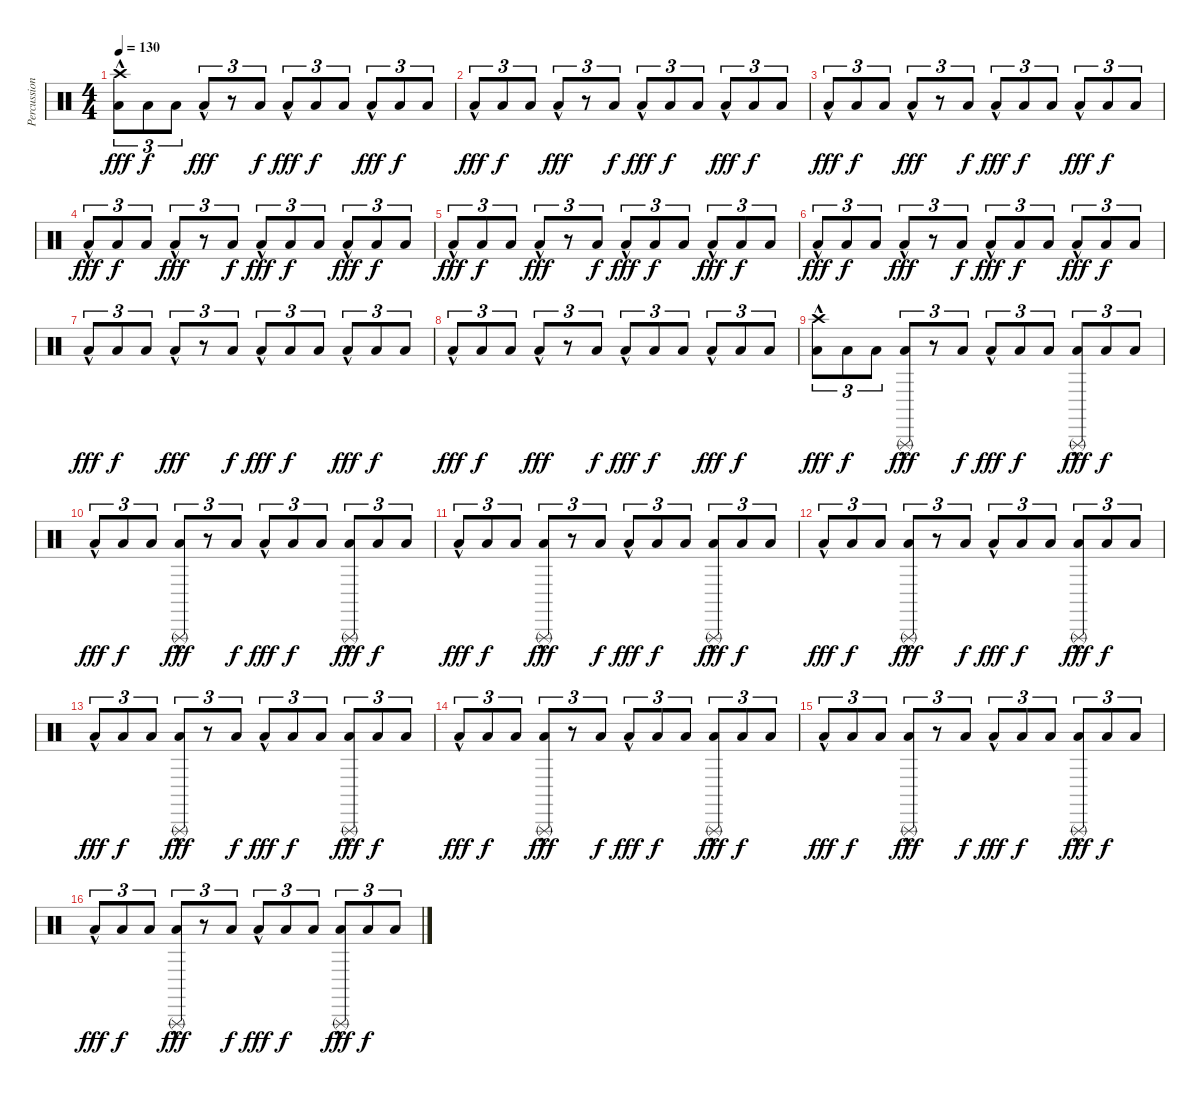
\track ("Percussion" "Percussion") {instrument percussion}
\staff {score}
\articulation defaults
\ts (4 4)
\tempo 130
\clef neutral
\ks c
("Crash high (hit)"{hac} "Low Tom (hit)"{hac}).8{tu (3 2) dy fff volume 12} "Low Tom (hit)".8{tu (3 2) dy f} "Low Tom (hit)".8{tu (3 2)} "Low Tom (hit)"{hac}.8{tu (3 2) dy fff} r.8{tu (3 2)} "Low Tom (hit)".8{tu (3 2) dy f} "Low Tom (hit)"{hac}.8{tu (3 2) dy fff} "Low Tom (hit)".8{tu (3 2) dy f} "Low Tom (hit)".8{tu (3 2)} "Low Tom (hit)"{hac}.8{tu (3 2) dy fff} "Low Tom (hit)".8{tu (3 2) dy f} "Low Tom (hit)".8{tu (3 2)} |
"Low Tom (hit)"{hac}.8{tu (3 2) dy fff} "Low Tom (hit)".8{tu (3 2) dy f} "Low Tom (hit)".8{tu (3 2)} "Low Tom (hit)"{hac}.8{tu (3 2) dy fff} r.8{tu (3 2)} "Low Tom (hit)".8{tu (3 2) dy f} "Low Tom (hit)"{hac}.8{tu (3 2) dy fff} "Low Tom (hit)".8{tu (3 2) dy f} "Low Tom (hit)".8{tu (3 2)} "Low Tom (hit)"{hac}.8{tu (3 2) dy fff} "Low Tom (hit)".8{tu (3 2) dy f} "Low Tom (hit)".8{tu (3 2)} |
"Low Tom (hit)"{hac}.8{tu (3 2) dy fff} "Low Tom (hit)".8{tu (3 2) dy f} "Low Tom (hit)".8{tu (3 2)} "Low Tom (hit)"{hac}.8{tu (3 2) dy fff} r.8{tu (3 2)} "Low Tom (hit)".8{tu (3 2) dy f} "Low Tom (hit)"{hac}.8{tu (3 2) dy fff} "Low Tom (hit)".8{tu (3 2) dy f} "Low Tom (hit)".8{tu (3 2)} "Low Tom (hit)"{hac}.8{tu (3 2) dy fff} "Low Tom (hit)".8{tu (3 2) dy f} "Low Tom (hit)".8{tu (3 2)} |
"Low Tom (hit)"{hac}.8{tu (3 2) dy fff} "Low Tom (hit)".8{tu (3 2) dy f} "Low Tom (hit)".8{tu (3 2)} "Low Tom (hit)"{hac}.8{tu (3 2) dy fff} r.8{tu (3 2)} "Low Tom (hit)".8{tu (3 2) dy f} "Low Tom (hit)"{hac}.8{tu (3 2) dy fff} "Low Tom (hit)".8{tu (3 2) dy f} "Low Tom (hit)".8{tu (3 2)} "Low Tom (hit)"{hac}.8{tu (3 2) dy fff} "Low Tom (hit)".8{tu (3 2) dy f} "Low Tom (hit)".8{tu (3 2)} |
"Low Tom (hit)"{hac}.8{tu (3 2) dy fff} "Low Tom (hit)".8{tu (3 2) dy f} "Low Tom (hit)".8{tu (3 2)} "Low Tom (hit)"{hac}.8{tu (3 2) dy fff} r.8{tu (3 2)} "Low Tom (hit)".8{tu (3 2) dy f} "Low Tom (hit)"{hac}.8{tu (3 2) dy fff} "Low Tom (hit)".8{tu (3 2) dy f} "Low Tom (hit)".8{tu (3 2)} "Low Tom (hit)"{hac}.8{tu (3 2) dy fff} "Low Tom (hit)".8{tu (3 2) dy f} "Low Tom (hit)".8{tu (3 2)} |
"Low Tom (hit)"{hac}.8{tu (3 2) dy fff} "Low Tom (hit)".8{tu (3 2) dy f} "Low Tom (hit)".8{tu (3 2)} "Low Tom (hit)"{hac}.8{tu (3 2) dy fff} r.8{tu (3 2)} "Low Tom (hit)".8{tu (3 2) dy f} "Low Tom (hit)"{hac}.8{tu (3 2) dy fff} "Low Tom (hit)".8{tu (3 2) dy f} "Low Tom (hit)".8{tu (3 2)} "Low Tom (hit)"{hac}.8{tu (3 2) dy fff} "Low Tom (hit)".8{tu (3 2) dy f} "Low Tom (hit)".8{tu (3 2)} |
"Low Tom (hit)"{hac}.8{tu (3 2) dy fff} "Low Tom (hit)".8{tu (3 2) dy f} "Low Tom (hit)".8{tu (3 2)} "Low Tom (hit)"{hac}.8{tu (3 2) dy fff} r.8{tu (3 2)} "Low Tom (hit)".8{tu (3 2) dy f} "Low Tom (hit)"{hac}.8{tu (3 2) dy fff} "Low Tom (hit)".8{tu (3 2) dy f} "Low Tom (hit)".8{tu (3 2)} "Low Tom (hit)"{hac}.8{tu (3 2) dy fff} "Low Tom (hit)".8{tu (3 2) dy f} "Low Tom (hit)".8{tu (3 2)} |
"Low Tom (hit)"{hac}.8{tu (3 2) dy fff} "Low Tom (hit)".8{tu (3 2) dy f} "Low Tom (hit)".8{tu (3 2)} "Low Tom (hit)"{hac}.8{tu (3 2) dy fff} r.8{tu (3 2)} "Low Tom (hit)".8{tu (3 2) dy f} "Low Tom (hit)"{hac}.8{tu (3 2) dy fff} "Low Tom (hit)".8{tu (3 2) dy f} "Low Tom (hit)".8{tu (3 2)} "Low Tom (hit)"{hac}.8{tu (3 2) dy fff} "Low Tom (hit)".8{tu (3 2) dy f} "Low Tom (hit)".8{tu (3 2)} |
("Crash high (hit)" "Low Tom (hit)"{hac}).8{tu (3 2) dy fff} "Low Tom (hit)".8{tu (3 2) dy f} "Low Tom (hit)".8{tu (3 2)} ("Low Tom (hit)"{hac} "Triangle (rnute)"{hac}).8{tu (3 2) dy fff} r.8{tu (3 2)} "Low Tom (hit)".8{tu (3 2) dy f} "Low Tom (hit)"{hac}.8{tu (3 2) dy fff} "Low Tom (hit)".8{tu (3 2) dy f} "Low Tom (hit)".8{tu (3 2)} ("Low Tom (hit)"{hac} "Triangle (rnute)"{hac}).8{tu (3 2) dy fff} "Low Tom (hit)".8{tu (3 2) dy f} "Low Tom (hit)".8{tu (3 2)} |
"Low Tom (hit)"{hac}.8{tu (3 2) dy fff} "Low Tom (hit)".8{tu (3 2) dy f} "Low Tom (hit)".8{tu (3 2)} ("Low Tom (hit)"{hac} "Triangle (rnute)").8{tu (3 2) dy fff} r.8{tu (3 2)} "Low Tom (hit)".8{tu (3 2) dy f} "Low Tom (hit)"{hac}.8{tu (3 2) dy fff} "Low Tom (hit)".8{tu (3 2) dy f} "Low Tom (hit)".8{tu (3 2)} ("Low Tom (hit)"{hac} "Triangle (rnute)").8{tu (3 2) dy fff} "Low Tom (hit)".8{tu (3 2) dy f} "Low Tom (hit)".8{tu (3 2)} |
"Low Tom (hit)"{hac}.8{tu (3 2) dy fff} "Low Tom (hit)".8{tu (3 2) dy f} "Low Tom (hit)".8{tu (3 2)} ("Low Tom (hit)"{hac} "Triangle (rnute)").8{tu (3 2) dy fff} r.8{tu (3 2)} "Low Tom (hit)".8{tu (3 2) dy f} "Low Tom (hit)"{hac}.8{tu (3 2) dy fff} "Low Tom (hit)".8{tu (3 2) dy f} "Low Tom (hit)".8{tu (3 2)} ("Low Tom (hit)"{hac} "Triangle (rnute)").8{tu (3 2) dy fff} "Low Tom (hit)".8{tu (3 2) dy f} "Low Tom (hit)".8{tu (3 2)} |
"Low Tom (hit)"{hac}.8{tu (3 2) dy fff} "Low Tom (hit)".8{tu (3 2) dy f} "Low Tom (hit)".8{tu (3 2)} ("Low Tom (hit)"{hac} "Triangle (rnute)").8{tu (3 2) dy fff} r.8{tu (3 2)} "Low Tom (hit)".8{tu (3 2) dy f} "Low Tom (hit)"{hac}.8{tu (3 2) dy fff} "Low Tom (hit)".8{tu (3 2) dy f} "Low Tom (hit)".8{tu (3 2)} ("Low Tom (hit)"{hac} "Triangle (rnute)").8{tu (3 2) dy fff} "Low Tom (hit)".8{tu (3 2) dy f} "Low Tom (hit)".8{tu (3 2)} |
"Low Tom (hit)"{hac}.8{tu (3 2) dy fff} "Low Tom (hit)".8{tu (3 2) dy f} "Low Tom (hit)".8{tu (3 2)} ("Low Tom (hit)"{hac} "Triangle (rnute)").8{tu (3 2) dy fff} r.8{tu (3 2)} "Low Tom (hit)".8{tu (3 2) dy f} "Low Tom (hit)"{hac}.8{tu (3 2) dy fff} "Low Tom (hit)".8{tu (3 2) dy f} "Low Tom (hit)".8{tu (3 2)} ("Low Tom (hit)"{hac} "Triangle (rnute)").8{tu (3 2) dy fff} "Low Tom (hit)".8{tu (3 2) dy f} "Low Tom (hit)".8{tu (3 2)} |
"Low Tom (hit)"{hac}.8{tu (3 2) dy fff} "Low Tom (hit)".8{tu (3 2) dy f} "Low Tom (hit)".8{tu (3 2)} ("Low Tom (hit)"{hac} "Triangle (rnute)").8{tu (3 2) dy fff} r.8{tu (3 2)} "Low Tom (hit)".8{tu (3 2) dy f} "Low Tom (hit)"{hac}.8{tu (3 2) dy fff} "Low Tom (hit)".8{tu (3 2) dy f} "Low Tom (hit)".8{tu (3 2)} ("Low Tom (hit)"{hac} "Triangle (rnute)").8{tu (3 2) dy fff} "Low Tom (hit)".8{tu (3 2) dy f} "Low Tom (hit)".8{tu (3 2)} |
"Low Tom (hit)"{hac}.8{tu (3 2) dy fff} "Low Tom (hit)".8{tu (3 2) dy f} "Low Tom (hit)".8{tu (3 2)} ("Low Tom (hit)"{hac} "Triangle (rnute)").8{tu (3 2) dy fff} r.8{tu (3 2)} "Low Tom (hit)".8{tu (3 2) dy f} "Low Tom (hit)"{hac}.8{tu (3 2) dy fff} "Low Tom (hit)".8{tu (3 2) dy f} "Low Tom (hit)".8{tu (3 2)} ("Low Tom (hit)"{hac} "Triangle (rnute)").8{tu (3 2) dy fff} "Low Tom (hit)".8{tu (3 2) dy f} "Low Tom (hit)".8{tu (3 2)} |
"Low Tom (hit)"{hac}.8{tu (3 2) dy fff} "Low Tom (hit)".8{tu (3 2) dy f} "Low Tom (hit)".8{tu (3 2)} ("Low Tom (hit)"{hac} "Triangle (rnute)").8{tu (3 2) dy fff} r.8{tu (3 2)} "Low Tom (hit)".8{tu (3 2) dy f} "Low Tom (hit)"{hac}.8{tu (3 2) dy fff} "Low Tom (hit)".8{tu (3 2) dy f} "Low Tom (hit)".8{tu (3 2)} ("Low Tom (hit)"{hac} "Triangle (rnute)").8{tu (3 2) dy fff} "Low Tom (hit)".8{tu (3 2) dy f} "Low Tom (hit)".8{tu (3 2)}
